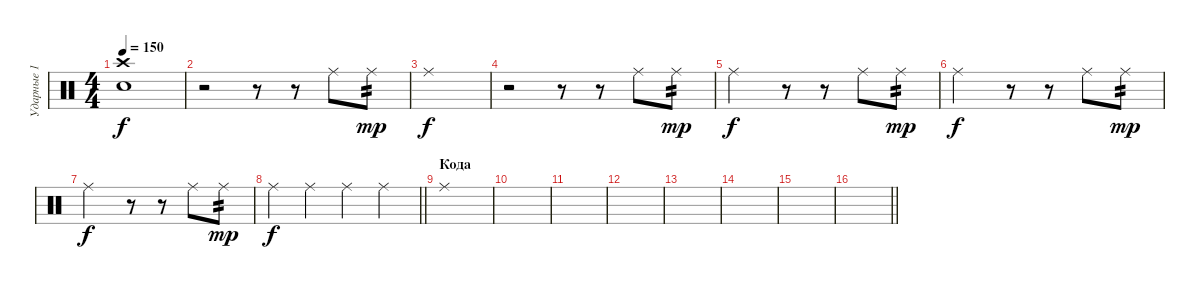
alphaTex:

\track ("Ударные 1" "Ударные 1") {instrument percussion}
\staff {score}
\articulation defaults
\ts (4 4)
\tempo 150
\clef neutral
\ks c
("Crash high (hit)" "Snare (hit) 2").1{dy f} |
r.2 r.8 r.8 "Ride (middle)".8 "Ride (middle)".8{tp 2 dy mp} |
"Ride (middle)".1{dy f} |
r.2 r.8 r.8 "Ride (middle)".8 "Ride (middle)".8{tp 2 dy mp} |
"Ride (middle)".2{dy f} r.8 r.8 "Ride (middle)".8 "Ride (middle)".8{tp 2 dy mp} |
"Ride (middle)".2{dy f} r.8 r.8 "Ride (middle)".8 "Ride (middle)".8{tp 2 dy mp} |
"Ride (middle)".2{dy f} r.8 r.8 "Ride (middle)".8 "Ride (middle)".8{tp 2 dy mp} |
\barLineRight lightlight "Ride (middle)".4{dy f} "Ride (middle)".4 "Ride (middle)".4 "Ride (middle)".4
|
\section ("" "Кода")
"Ride (middle)".1 |
|
|
|
|
|
|
\barLineRight lightlight
